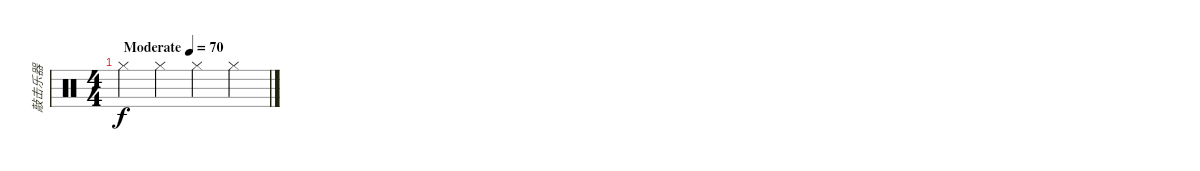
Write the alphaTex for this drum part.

\track ("敲击乐器" "敲击乐器") {instrument percussion}
\staff {score}
\articulation defaults
\ts (4 4)
\tempo (70 "Moderate")
\clef neutral
\ks c "Hi-Hat (closed)".4{dy f} "Hi-Hat (closed)".4 "Hi-Hat (closed)".4 "Hi-Hat (closed)".4
